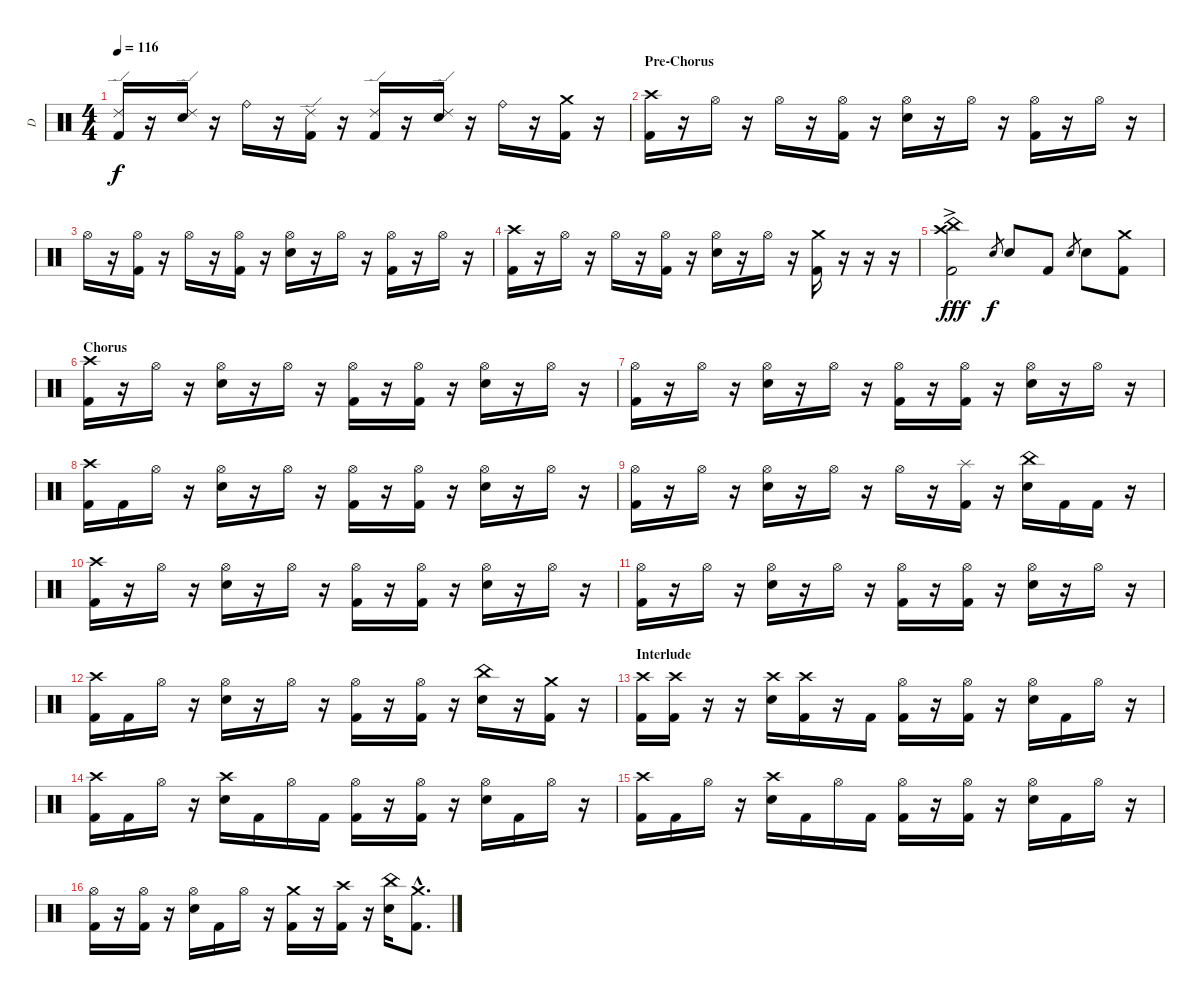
\track ("D" "D") {instrument percussion}
\staff {score}
\articulation defaults
\ts (4 4)
\tempo 116
\clef neutral
\ks c
("Ride (edge) 2" "Kick (hit) 2").16{dy f} r.16 ("Ride (edge) 2" "Electric Snare (hit)").16 r.16 "Ride (bell)".16 r.16 ("Ride (edge) 2" "Kick (hit) 2").16 r.16 ("Ride (edge) 2" "Kick (hit) 2").16 r.16 ("Ride (edge) 2" "Electric Snare (hit)").16 r.16 "Ride (bell)".16 r.16 ("Crash medium (hit)" "Kick (hit) 2").16 r.16 |
\section ("" "Pre-Chorus")
("Crash high (hit)" "Kick (hit) 2").16 r.16 "Hi-Hat (open)".16 r.16 "Hi-Hat (open)".16 r.16 ("Hi-Hat (open)" "Kick (hit) 2").16 r.16 ("Hi-Hat (open)" "Electric Snare (hit)").16 r.16 "Hi-Hat (open)".16 r.16 ("Hi-Hat (open)" "Kick (hit) 2").16 r.16 "Hi-Hat (open)".16 r.16 |
"Hi-Hat (open)".16 r.16 ("Hi-Hat (open)" "Kick (hit) 2").16 r.16 "Hi-Hat (open)".16 r.16 ("Hi-Hat (open)" "Kick (hit) 2").16 r.16 ("Hi-Hat (open)" "Electric Snare (hit)").16 r.16 "Hi-Hat (open)".16 r.16 ("Hi-Hat (open)" "Kick (hit) 2").16 r.16 "Hi-Hat (open)".16 r.16 |
("Crash high (hit)" "Kick (hit) 2").16 r.16 "Hi-Hat (open)".16 r.16 "Hi-Hat (open)".16 r.16 ("Hi-Hat (open)" "Kick (hit) 2").16 r.16 ("Hi-Hat (open)" "Electric Snare (hit)").16 r.16 "Hi-Hat (open)".16 r.16 ("Crash medium (hit)" "Kick (hit) 2").16 r.16 r.16 r.16 |
("Crash high (hit)" "China (hit)"{ac} "Kick (hit) 2").2{dy fff} "Electric Snare (hit)".8{gr dy f} "Electric Snare (hit)".8 "Kick (hit) 2".8 "Electric Snare (hit)".8{gr} "Electric Snare (hit)".8 ("Crash medium (hit)" "Kick (hit) 2").8 |
\section ("" "Chorus")
("Crash high (hit)" "Kick (hit) 2").16 r.16 "Hi-Hat (open)".16 r.16 ("Hi-Hat (open)" "Electric Snare (hit)").16 r.16 "Hi-Hat (open)".16 r.16 ("Hi-Hat (open)" "Kick (hit) 2").16 r.16 ("Hi-Hat (open)" "Kick (hit) 2").16 r.16 ("Hi-Hat (open)" "Electric Snare (hit)").16 r.16 "Hi-Hat (open)".16 r.16 |
("Hi-Hat (open)" "Kick (hit) 2").16 r.16 "Hi-Hat (open)".16 r.16 ("Hi-Hat (open)" "Electric Snare (hit)").16 r.16 "Hi-Hat (open)".16 r.16 ("Hi-Hat (open)" "Kick (hit) 2").16 r.16 ("Hi-Hat (open)" "Kick (hit) 2").16 r.16 ("Hi-Hat (open)" "Electric Snare (hit)").16 r.16 "Hi-Hat (open)".16 r.16 |
("Crash high (hit)" "Kick (hit) 2").16 "Kick (hit) 2".16 "Hi-Hat (open)".16 r.16 ("Hi-Hat (open)" "Electric Snare (hit)").16 r.16 "Hi-Hat (open)".16 r.16 ("Hi-Hat (open)" "Kick (hit) 2").16 r.16 ("Hi-Hat (open)" "Kick (hit) 2").16 r.16 ("Hi-Hat (open)" "Electric Snare (hit)").16 r.16 "Hi-Hat (open)".16 r.16 |
("Hi-Hat (open)" "Kick (hit) 2").16 r.16 "Hi-Hat (open)".16 r.16 ("Hi-Hat (open)" "Electric Snare (hit)").16 r.16 "Hi-Hat (open)".16 r.16 "Hi-Hat (open)".16 r.16 ("Splash (hit)" "Kick (hit) 2").16 r.16 ("China (hit)" "Electric Snare (hit)").16 "Kick (hit) 2".16 "Kick (hit) 2".16 r.16 |
("Crash high (hit)" "Kick (hit) 2").16 r.16 "Hi-Hat (open)".16 r.16 ("Hi-Hat (open)" "Electric Snare (hit)").16 r.16 "Hi-Hat (open)".16 r.16 ("Hi-Hat (open)" "Kick (hit) 2").16 r.16 ("Hi-Hat (open)" "Kick (hit) 2").16 r.16 ("Hi-Hat (open)" "Electric Snare (hit)").16 r.16 "Hi-Hat (open)".16 r.16 |
("Hi-Hat (open)" "Kick (hit) 2").16 r.16 "Hi-Hat (open)".16 r.16 ("Hi-Hat (open)" "Electric Snare (hit)").16 r.16 "Hi-Hat (open)".16 r.16 ("Hi-Hat (open)" "Kick (hit) 2").16 r.16 ("Hi-Hat (open)" "Kick (hit) 2").16 r.16 ("Hi-Hat (open)" "Electric Snare (hit)").16 r.16 "Hi-Hat (open)".16 r.16 |
("Crash high (hit)" "Kick (hit) 2").16 "Kick (hit) 2".16 "Hi-Hat (open)".16 r.16 ("Hi-Hat (open)" "Electric Snare (hit)").16 r.16 "Hi-Hat (open)".16 r.16 ("Hi-Hat (open)" "Kick (hit) 2").16 r.16 ("Hi-Hat (open)" "Kick (hit) 2").16 r.16 ("China (hit)" "Electric Snare (hit)").16 r.16 ("Crash medium (hit)" "Kick (hit) 2").16 r.16 |
\section ("" "Interlude")
("Crash high (hit)" "Kick (hit) 2").16 ("Crash high (hit)" "Kick (hit) 2").16 r.16 r.16 ("Crash high (hit)" "Electric Snare (hit)").16 ("Crash high (hit)" "Kick (hit) 2").16 r.16 "Kick (hit) 2".16 ("Hi-Hat (open)" "Kick (hit) 2").16 r.16 ("Hi-Hat (open)" "Kick (hit) 2").16 r.16 ("Hi-Hat (open)" "Electric Snare (hit)").16 "Kick (hit) 2".16 "Hi-Hat (open)".16 r.16 |
("Crash high (hit)" "Kick (hit) 2").16 "Kick (hit) 2".16 "Hi-Hat (open)".16 r.16 ("Crash high (hit)" "Electric Snare (hit)").16 "Kick (hit) 2".16 "Hi-Hat (open)".16 "Kick (hit) 2".16 ("Hi-Hat (open)" "Kick (hit) 2").16 r.16 ("Hi-Hat (open)" "Kick (hit) 2").16 r.16 ("Hi-Hat (open)" "Electric Snare (hit)").16 "Kick (hit) 2".16 "Hi-Hat (open)".16 r.16 |
("Crash high (hit)" "Kick (hit) 2").16 "Kick (hit) 2".16 "Hi-Hat (open)".16 r.16 ("Crash high (hit)" "Electric Snare (hit)").16 "Kick (hit) 2".16 "Hi-Hat (open)".16 "Kick (hit) 2".16 ("Hi-Hat (open)" "Kick (hit) 2").16 r.16 ("Hi-Hat (open)" "Kick (hit) 2").16 r.16 ("Hi-Hat (open)" "Electric Snare (hit)").16 "Kick (hit) 2".16 "Hi-Hat (open)".16 r.16 |
("Hi-Hat (open)" "Kick (hit) 2").16 r.16 ("Hi-Hat (open)" "Kick (hit) 2").16 r.16 ("Hi-Hat (open)" "Electric Snare (hit)").16 "Kick (hit) 2".16 "Hi-Hat (open)".16 r.16 ("Crash medium (hit)" "Kick (hit) 2").16 r.16 ("Crash high (hit)" "Kick (hit) 2").16 r.16 ("China (hit)" "Electric Snare (hit)").16 ("Crash medium (hit)"{hac} "Kick (hit) 2"{hac}).8{d}
